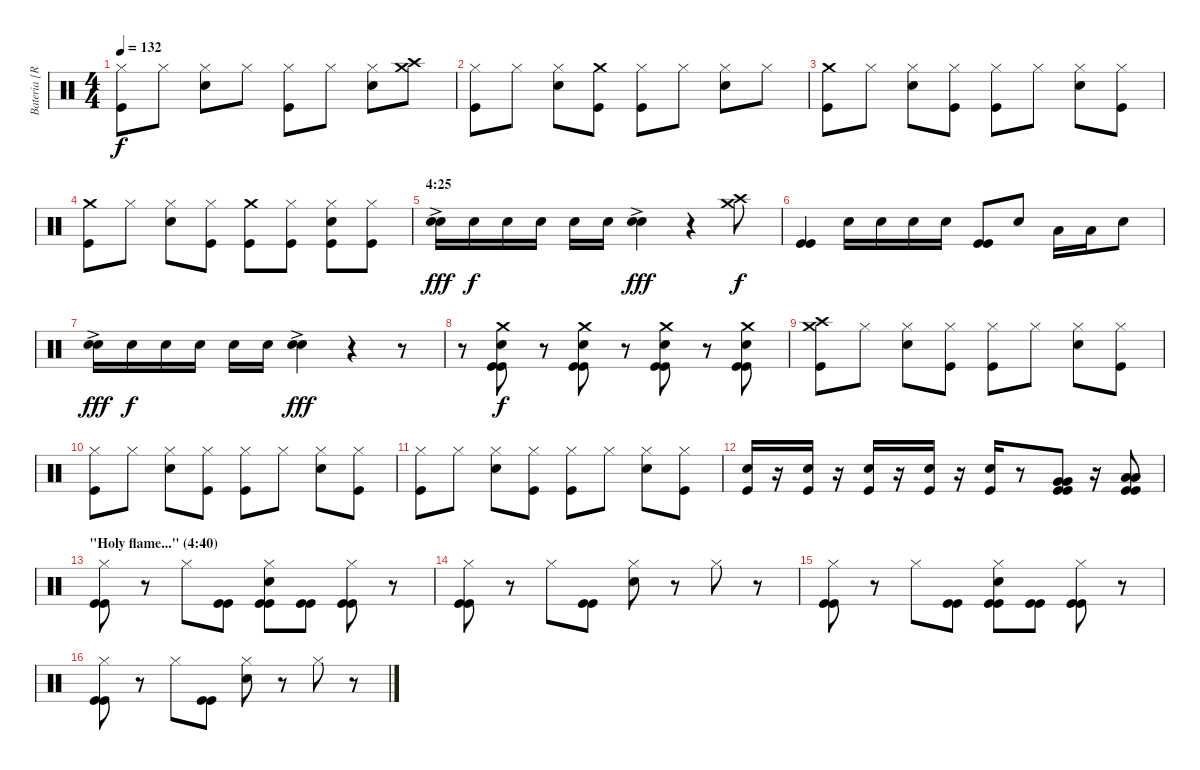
\track ("Bateria [Ricardo Confessori]" "Bateria [R") {instrument percussion}
\staff {score}
\articulation defaults
\ts (4 4)
\tempo 132
\clef neutral
\ks c
("Hi-Hat (closed)" "Kick (hit)").8{dy f} "Hi-Hat (closed)".8 ("Hi-Hat (closed)" "Electric Snare (hit)").8 "Hi-Hat (closed)".8 ("Hi-Hat (closed)" "Kick (hit)").8 "Hi-Hat (closed)".8 ("Hi-Hat (closed)" "Electric Snare (hit)").8 ("Crash medium (hit)" "Crash high (hit)").8 |
("Hi-Hat (closed)" "Kick (hit)").8 "Hi-Hat (closed)".8 ("Hi-Hat (closed)" "Electric Snare (hit)").8 ("Crash medium (hit)" "Kick (hit)").8 ("Hi-Hat (closed)" "Kick (hit)").8 "Hi-Hat (closed)".8 ("Hi-Hat (closed)" "Electric Snare (hit)").8 "Hi-Hat (closed)".8 |
("Crash medium (hit)" "Kick (hit)").8 "Hi-Hat (closed)".8 ("Hi-Hat (closed)" "Electric Snare (hit)").8 ("Hi-Hat (closed)" "Kick (hit)").8 ("Hi-Hat (closed)" "Kick (hit)").8 "Hi-Hat (closed)".8 ("Hi-Hat (closed)" "Electric Snare (hit)").8 ("Hi-Hat (closed)" "Kick (hit)").8 |
("Crash medium (hit)" "Kick (hit)").8 "Hi-Hat (closed)".8 ("Hi-Hat (closed)" "Electric Snare (hit)").8 ("Hi-Hat (closed)" "Kick (hit)").8 ("Crash medium (hit)" "Kick (hit)").8 ("Hi-Hat (closed)" "Kick (hit)").8 ("Hi-Hat (closed)" "Electric Snare (hit)" "Kick (hit)").8 ("Hi-Hat (closed)" "Kick (hit)").8 |
\section ("" "4:25")
("Electric Snare (hit)"{ac} "Electric Snare (hit)").16{dy fff volume 10} "Electric Snare (hit)".16{dy f} "Electric Snare (hit)".16 "Electric Snare (hit)".16 "Electric Snare (hit)".16 "Electric Snare (hit)".16 ("Electric Snare (hit)"{ac} "Electric Snare (hit)").4{dy fff} r.4 ("Crash medium (hit)" "Crash high (hit)").8{dy f} |
("Kick (hit)" "Kick (hit)").4 "Electric Snare (hit)".16 "Electric Snare (hit)".16 "Electric Snare (hit)".16 "Electric Snare (hit)".16 ("Kick (hit)" "Kick (hit)").8 "Electric Snare (hit)".8 "Low Tom (hit)".16 "Low Tom (hit)".16 "Electric Snare (hit)".8 |
("Electric Snare (hit)"{ac} "Electric Snare (hit)").16{dy fff} "Electric Snare (hit)".16{dy f} "Electric Snare (hit)".16 "Electric Snare (hit)".16 "Electric Snare (hit)".16 "Electric Snare (hit)".16 ("Electric Snare (hit)"{ac} "Electric Snare (hit)").4{dy fff} r.4 r.8 |
r.8 ("Crash medium (hit)" "Electric Snare (hit)" "Kick (hit)" "Kick (hit)").8{dy f} r.8 ("Crash medium (hit)" "Electric Snare (hit)" "Kick (hit)" "Kick (hit)").8 r.8 ("Crash medium (hit)" "Electric Snare (hit)" "Kick (hit)" "Kick (hit)").8 r.8 ("Crash medium (hit)" "Electric Snare (hit)" "Kick (hit)" "Kick (hit)").8 |
("Crash medium (hit)" "Crash high (hit)" "Kick (hit)").8 "Hi-Hat (closed)".8 ("Hi-Hat (closed)" "Electric Snare (hit)").8 ("Hi-Hat (closed)" "Kick (hit)").8 ("Hi-Hat (closed)" "Kick (hit)").8 "Hi-Hat (closed)".8 ("Hi-Hat (closed)" "Electric Snare (hit)").8 ("Hi-Hat (closed)" "Kick (hit)").8 |
("Hi-Hat (closed)" "Kick (hit)").8 "Hi-Hat (closed)".8 ("Hi-Hat (closed)" "Electric Snare (hit)").8 ("Hi-Hat (closed)" "Kick (hit)").8 ("Hi-Hat (closed)" "Kick (hit)").8 "Hi-Hat (closed)".8 ("Hi-Hat (closed)" "Electric Snare (hit)").8 ("Hi-Hat (closed)" "Kick (hit)").8 |
("Hi-Hat (closed)" "Kick (hit)").8 "Hi-Hat (closed)".8 ("Hi-Hat (closed)" "Electric Snare (hit)").8 ("Hi-Hat (closed)" "Kick (hit)").8 ("Hi-Hat (closed)" "Kick (hit)").8 "Hi-Hat (closed)".8 ("Hi-Hat (closed)" "Electric Snare (hit)").8 ("Hi-Hat (closed)" "Kick (hit)").8 |
("Electric Snare (hit)" "Kick (hit)").16 r.16 ("Electric Snare (hit)" "Kick (hit)").16 r.16 ("Electric Snare (hit)" "Kick (hit)").16 r.16 ("Electric Snare (hit)" "Kick (hit)").16 r.16 ("Electric Snare (hit)" "Kick (hit)").16 r.8 ("Very Low Tom (hit)" "Very Low Tom (hit)" "Kick (hit)" "Kick (hit)").8 r.16 ("Low Floor Tom (hit)" "Low Floor Tom (hit)" "Kick (hit)" "Kick (hit)").8 |
\section ("" "\"Holy flame...\" (4:40)")
("Hi-Hat (closed)" "Kick (hit)" "Kick (hit)").8 r.8 "Hi-Hat (closed)".8 ("Kick (hit)" "Kick (hit)").8 ("Hi-Hat (closed)" "Electric Snare (hit)" "Kick (hit)" "Kick (hit)").8 ("Kick (hit)" "Kick (hit)").8 ("Hi-Hat (closed)" "Kick (hit)" "Kick (hit)").8 r.8 |
("Hi-Hat (closed)" "Kick (hit)" "Kick (hit)").8 r.8 "Hi-Hat (closed)".8 ("Kick (hit)" "Kick (hit)").8 ("Hi-Hat (closed)" "Electric Snare (hit)").8 r.8 "Hi-Hat (closed)".8 r.8 |
("Hi-Hat (closed)" "Kick (hit)" "Kick (hit)").8 r.8 "Hi-Hat (closed)".8 ("Kick (hit)" "Kick (hit)").8 ("Hi-Hat (closed)" "Electric Snare (hit)" "Kick (hit)" "Kick (hit)").8 ("Kick (hit)" "Kick (hit)").8 ("Hi-Hat (closed)" "Kick (hit)" "Kick (hit)").8 r.8 |
("Hi-Hat (closed)" "Kick (hit)" "Kick (hit)").8 r.8 "Hi-Hat (closed)".8 ("Kick (hit)" "Kick (hit)").8 ("Hi-Hat (closed)" "Electric Snare (hit)").8 r.8 "Hi-Hat (closed)".8 r.8
